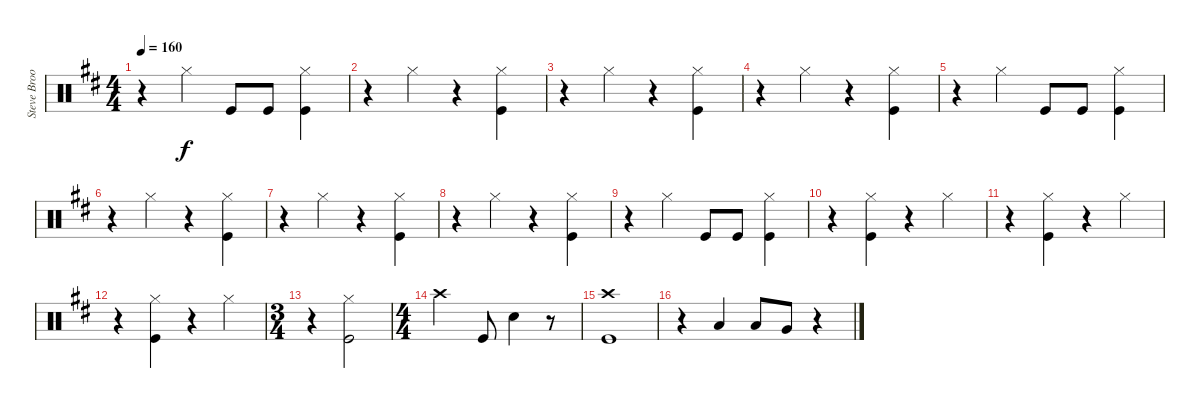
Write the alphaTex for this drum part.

\track ("Steve Brookins Drums" "Steve Broo") {instrument percussion}
\staff {score}
\articulation defaults
\ts (4 4)
\tempo 160
\clef neutral
\ks d
r.4{dy f} "Hi-Hat (closed)".4 "Kick (hit)".8 "Kick (hit)".8 ("Hi-Hat (closed)" "Kick (hit)").4 |
r.4 "Hi-Hat (closed)".4 r.4 ("Hi-Hat (closed)" "Kick (hit)").4 |
r.4 "Hi-Hat (closed)".4 r.4 ("Hi-Hat (closed)" "Kick (hit)").4 |
r.4 "Hi-Hat (closed)".4 r.4 ("Hi-Hat (closed)" "Kick (hit)").4 |
r.4 "Hi-Hat (closed)".4 "Kick (hit)".8 "Kick (hit)".8 ("Hi-Hat (closed)" "Kick (hit)").4 |
r.4 "Hi-Hat (closed)".4 r.4 ("Hi-Hat (closed)" "Kick (hit)").4 |
r.4 "Hi-Hat (closed)".4 r.4 ("Hi-Hat (closed)" "Kick (hit)").4 |
r.4 "Hi-Hat (closed)".4 r.4 ("Hi-Hat (closed)" "Kick (hit)").4 |
r.4 "Hi-Hat (closed)".4 "Kick (hit)".8 "Kick (hit)".8 ("Hi-Hat (closed)" "Kick (hit)").4 |
r.4 ("Hi-Hat (closed)" "Kick (hit)").4 r.4 "Hi-Hat (closed)".4 |
r.4 ("Hi-Hat (closed)" "Kick (hit)").4 r.4 "Hi-Hat (closed)".4 |
r.4 ("Hi-Hat (closed)" "Kick (hit)").4 r.4 "Hi-Hat (closed)".4 |
\ts (3 4)
r.4 ("Hi-Hat (closed)" "Kick (hit)").2 |
\ts (4 4)
"Crash high (hit)".2 "Kick (hit)".8 "Snare (hit) 2".4 r.8 |
("Crash high (hit)" "Kick (hit)").1 |
r.4 "Low Tom (hit)".4 "Low Tom (hit)".8 "Very Low Tom (hit)".8 r.4
